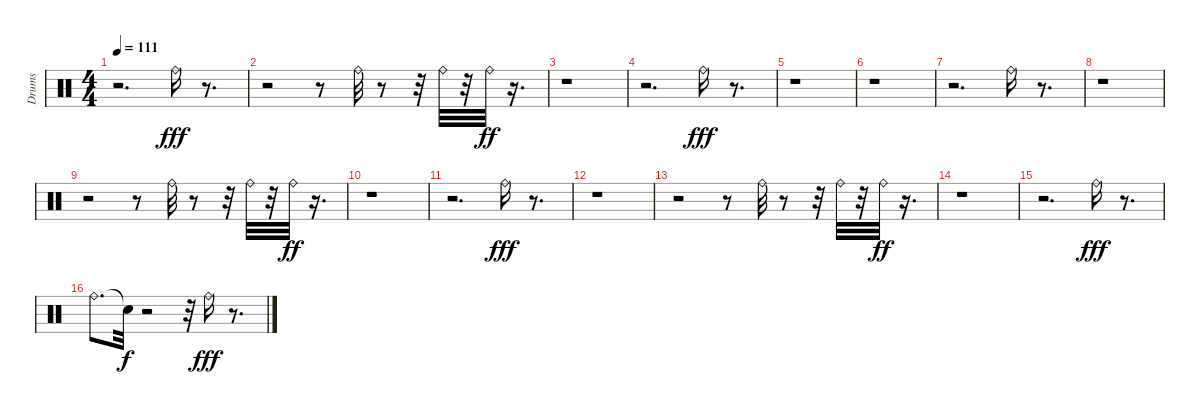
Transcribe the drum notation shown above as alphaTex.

\track ("Drums" "Drums") {instrument percussion}
\staff {score}
\articulation defaults
\ts (4 4)
\tempo 111
\clef neutral
\ks c
r.2{d dy ff} "Ride (bell)".16{dy fff} r.8{d} |
r.2 r.8 "Ride (bell)".32 r.8 r.32 "Ride (bell)".32 r.32 "Ride (bell)".32{dy ff} r.16{d} |
r.1 |
r.2{d} "Ride (bell)".16{dy fff} r.8{d} |
r.1 |
r.1 |
r.2{d} "Ride (bell)".16 r.8{d} |
r.1 |
r.2 r.8 "Ride (bell)".32 r.8 r.32 "Ride (bell)".32 r.32 "Ride (bell)".32{dy ff} r.16{d} |
r.1 |
r.2{d} "Ride (bell)".16{dy fff} r.8{d} |
r.1 |
r.2 r.8 "Ride (bell)".32 r.8 r.32 "Ride (bell)".32 r.32 "Ride (bell)".32{dy ff} r.16{d} |
r.1 |
r.2{d} "Ride (bell)".16{dy fff} r.8{d} |
"Ride (bell)".8{d} "Snare (hit)"{t}.32{dy f} r.2 r.32 "Ride (bell)".16{dy fff} r.8{d}
